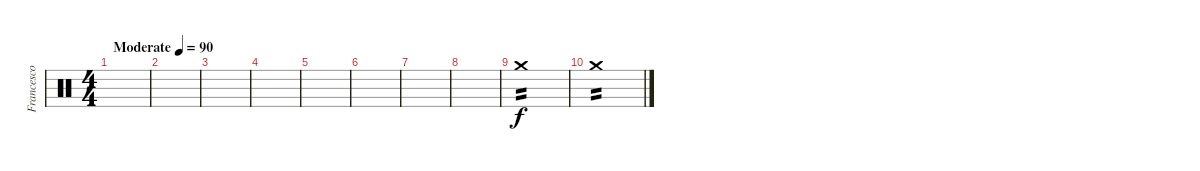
\track ("Francesco -Franz- Valente" "Francesco ") {instrument percussion}
\staff {score}
\articulation defaults
\ts (4 4)
\tempo (90 "Moderate")
\clef neutral
\ks c
|
|
|
|
|
|
|
|
"Crash medium (hit)".1{tp 2} |
"Crash medium (hit)".1{tp 2}
